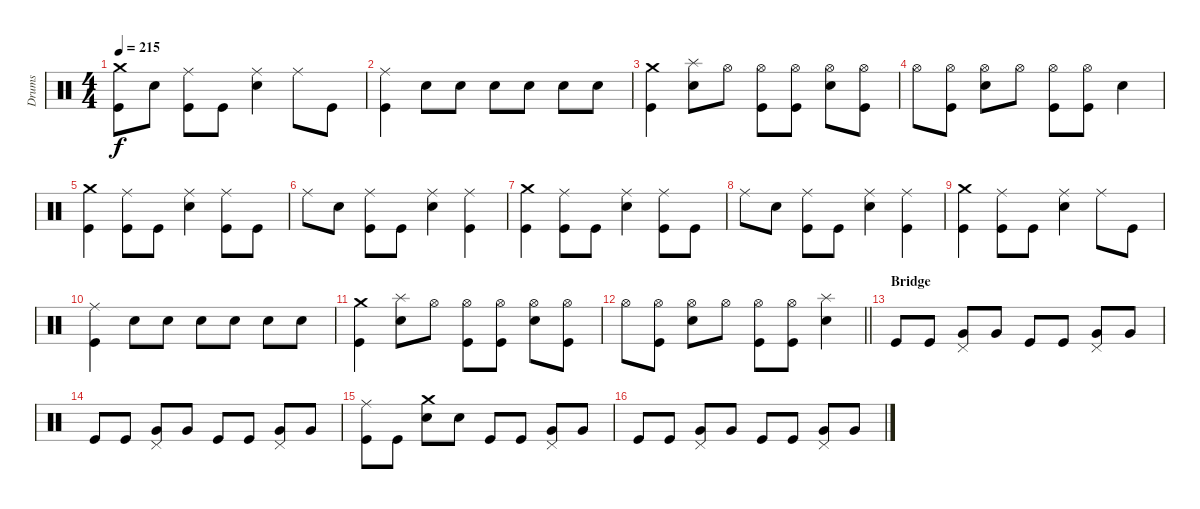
\track ("Drums" "Drums") {instrument percussion}
\staff {score}
\articulation defaults
\ts (4 4)
\tempo 215
\clef neutral
\ks c
("Crash medium (hit)" "Kick (hit)").8{dy f} "Snare (hit) 2".8 ("Kick (hit)" "Ride (middle)").8 "Kick (hit)".8 ("Snare (hit) 2" "Ride (middle)").4 "Ride (middle)".8 "Kick (hit)".8 |
("Kick (hit)" "Ride (middle)").4 "Snare (hit) 2".8 "Snare (hit) 2".8 "Snare (hit) 2".8 "Snare (hit) 2".8 "Snare (hit) 2".8 "Snare (hit) 2".8 |
("Kick (hit)" "Crash medium (hit)").4 ("Snare (hit) 2" "Splash (hit)").8 "Hi-Hat (open)".8 ("Kick (hit)" "Hi-Hat (open)").8 ("Kick (hit)" "Hi-Hat (open)").8 ("Snare (hit) 2" "Hi-Hat (open)").8 ("Hi-Hat (open)" "Kick (hit)").8 |
"Hi-Hat (open)".8 ("Kick (hit)" "Hi-Hat (open)").8 ("Snare (hit) 2" "Hi-Hat (open)").8 "Hi-Hat (open)".8 ("Kick (hit)" "Hi-Hat (open)").8 ("Kick (hit)" "Hi-Hat (open)").8 "Snare (hit) 2".4 |
("Crash medium (hit)" "Kick (hit)").4 ("Kick (hit)" "Ride (middle)").8 "Kick (hit)".8 ("Snare (hit) 2" "Ride (middle)").4 ("Ride (middle)" "Kick (hit)").8 "Kick (hit)".8 |
"Ride (middle)".8 "Snare (hit) 2".8 ("Kick (hit)" "Ride (middle)").8 "Kick (hit)".8 ("Snare (hit) 2" "Ride (middle)").4 ("Kick (hit)" "Ride (middle)").4 |
("Crash medium (hit)" "Kick (hit)").4 ("Kick (hit)" "Ride (middle)").8 "Kick (hit)".8 ("Snare (hit) 2" "Ride (middle)").4 ("Ride (middle)" "Kick (hit)").8 "Kick (hit)".8 |
"Ride (middle)".8 "Snare (hit) 2".8 ("Kick (hit)" "Ride (middle)").8 "Kick (hit)".8 ("Snare (hit) 2" "Ride (middle)").4 ("Ride (middle)" "Kick (hit)").4 |
("Crash medium (hit)" "Kick (hit)").4 ("Kick (hit)" "Ride (middle)").8 "Kick (hit)".8 ("Snare (hit) 2" "Ride (middle)").4 "Ride (middle)".8 "Kick (hit)".8 |
("Kick (hit)" "Ride (middle)").4 "Snare (hit) 2".8 "Snare (hit) 2".8 "Snare (hit) 2".8 "Snare (hit) 2".8 "Snare (hit) 2".8 "Snare (hit) 2".8 |
("Kick (hit)" "Crash medium (hit)").4 ("Snare (hit) 2" "Splash (hit)").8 "Hi-Hat (open)".8 ("Kick (hit)" "Hi-Hat (open)").8 ("Kick (hit)" "Hi-Hat (open)").8 ("Snare (hit) 2" "Hi-Hat (open)").8 ("Hi-Hat (open)" "Kick (hit)").8 |
\barLineRight lightlight "Hi-Hat (open)".8
("Kick (hit)" "Hi-Hat (open)").8 ("Snare (hit) 2" "Hi-Hat (open)").8 "Hi-Hat (open)".8 ("Kick (hit)" "Hi-Hat (open)").8 ("Kick (hit)" "Hi-Hat (open)").8 ("Snare (hit) 2" "Splash (hit)").4 |
\section ("" "Bridge")
"Kick (hit)".8 "Kick (hit)".8 ("Very Low Tom (hit)" "Pedal Hi-Hat (hit)").8 "Very Low Tom (hit)".8 "Kick (hit)".8 "Kick (hit)".8 ("Very Low Tom (hit)" "Pedal Hi-Hat (hit)").8 "Very Low Tom (hit)".8 |
"Kick (hit)".8 "Kick (hit)".8 ("Very Low Tom (hit)" "Pedal Hi-Hat (hit)").8 "Very Low Tom (hit)".8 "Kick (hit)".8 "Kick (hit)".8 ("Very Low Tom (hit)" "Pedal Hi-Hat (hit)").8 "Very Low Tom (hit)".8 |
("Kick (hit)" "Ride (middle)").8 "Kick (hit)".8 ("Snare (hit) 2" "Crash medium (hit)").8 "Snare (hit) 2".8 "Kick (hit)".8 "Kick (hit)".8 ("Very Low Tom (hit)" "Pedal Hi-Hat (hit)").8 "Very Low Tom (hit)".8 |
"Kick (hit)".8 "Kick (hit)".8 ("Very Low Tom (hit)" "Pedal Hi-Hat (hit)").8 "Very Low Tom (hit)".8 "Kick (hit)".8 "Kick (hit)".8 ("Very Low Tom (hit)" "Pedal Hi-Hat (hit)").8 "Very Low Tom (hit)".8
